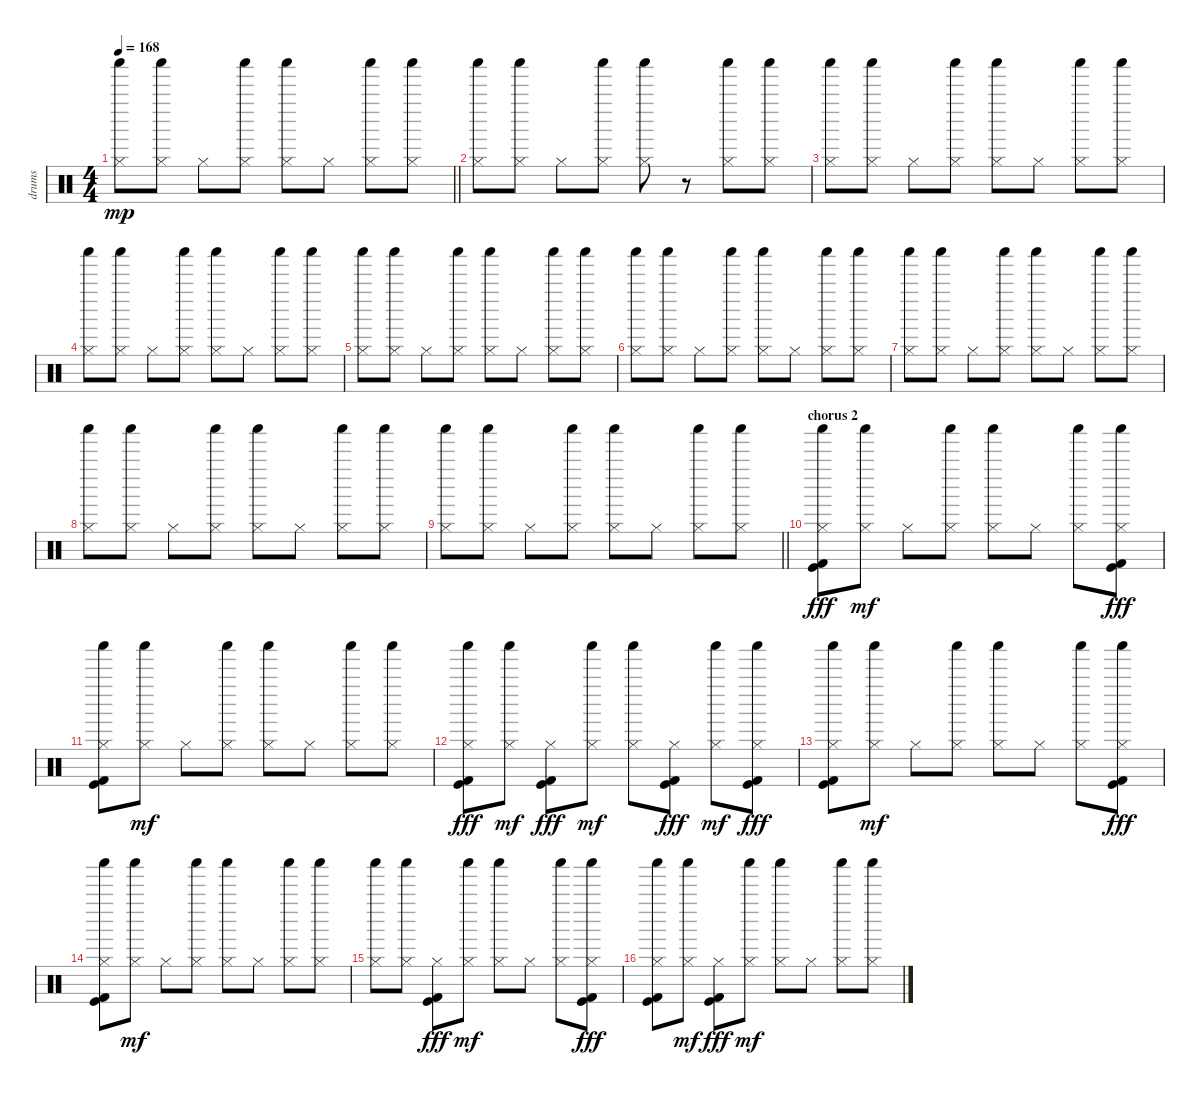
\track ("drums" "drums") {instrument percussion}
\staff {score}
\articulation defaults
\ts (4 4)
\tempo 168
\clef neutral
\barLineRight lightlight
\ks c
("Hi-Hat (closed)" "Shaker (hit)").8{dy mp} ("Hi-Hat (closed)" "Shaker (hit)").8 "Hi-Hat (closed)".8 ("Hi-Hat (closed)" "Shaker (hit)").8 ("Hi-Hat (closed)" "Shaker (hit)").8 "Hi-Hat (closed)".8 ("Hi-Hat (closed)" "Shaker (hit)").8 ("Hi-Hat (closed)" "Shaker (hit)").8 |
("Hi-Hat (closed)" "Shaker (hit)").8 ("Hi-Hat (closed)" "Shaker (hit)").8 "Hi-Hat (closed)".8 ("Hi-Hat (closed)" "Shaker (hit)").8 ("Hi-Hat (closed)" "Shaker (hit)").8 r.8 ("Hi-Hat (closed)" "Shaker (hit)").8 ("Hi-Hat (closed)" "Shaker (hit)").8 |
("Hi-Hat (closed)" "Shaker (hit)").8 ("Hi-Hat (closed)" "Shaker (hit)").8 "Hi-Hat (closed)".8 ("Hi-Hat (closed)" "Shaker (hit)").8 ("Hi-Hat (closed)" "Shaker (hit)").8 "Hi-Hat (closed)".8 ("Hi-Hat (closed)" "Shaker (hit)").8 ("Hi-Hat (closed)" "Shaker (hit)").8 |
("Hi-Hat (closed)" "Shaker (hit)").8 ("Hi-Hat (closed)" "Shaker (hit)").8 "Hi-Hat (closed)".8 ("Hi-Hat (closed)" "Shaker (hit)").8 ("Hi-Hat (closed)" "Shaker (hit)").8 "Hi-Hat (closed)".8 ("Hi-Hat (closed)" "Shaker (hit)").8 ("Hi-Hat (closed)" "Shaker (hit)").8 |
("Hi-Hat (closed)" "Shaker (hit)").8 ("Hi-Hat (closed)" "Shaker (hit)").8 "Hi-Hat (closed)".8 ("Hi-Hat (closed)" "Shaker (hit)").8 ("Hi-Hat (closed)" "Shaker (hit)").8 "Hi-Hat (closed)".8 ("Hi-Hat (closed)" "Shaker (hit)").8 ("Hi-Hat (closed)" "Shaker (hit)").8 |
("Hi-Hat (closed)" "Shaker (hit)").8 ("Hi-Hat (closed)" "Shaker (hit)").8 "Hi-Hat (closed)".8 ("Hi-Hat (closed)" "Shaker (hit)").8 ("Hi-Hat (closed)" "Shaker (hit)").8 "Hi-Hat (closed)".8 ("Hi-Hat (closed)" "Shaker (hit)").8 ("Hi-Hat (closed)" "Shaker (hit)").8 |
("Hi-Hat (closed)" "Shaker (hit)").8 ("Hi-Hat (closed)" "Shaker (hit)").8 "Hi-Hat (closed)".8 ("Hi-Hat (closed)" "Shaker (hit)").8 ("Hi-Hat (closed)" "Shaker (hit)").8 "Hi-Hat (closed)".8 ("Hi-Hat (closed)" "Shaker (hit)").8 ("Hi-Hat (closed)" "Shaker (hit)").8 |
("Hi-Hat (closed)" "Shaker (hit)").8 ("Hi-Hat (closed)" "Shaker (hit)").8 "Hi-Hat (closed)".8 ("Hi-Hat (closed)" "Shaker (hit)").8 ("Hi-Hat (closed)" "Shaker (hit)").8 "Hi-Hat (closed)".8 ("Hi-Hat (closed)" "Shaker (hit)").8 ("Hi-Hat (closed)" "Shaker (hit)").8 |
\barLineRight lightlight
("Hi-Hat (closed)" "Shaker (hit)").8 ("Hi-Hat (closed)" "Shaker (hit)").8 "Hi-Hat (closed)".8 ("Hi-Hat (closed)" "Shaker (hit)").8 ("Hi-Hat (closed)" "Shaker (hit)").8 "Hi-Hat (closed)".8 ("Hi-Hat (closed)" "Shaker (hit)").8 ("Hi-Hat (closed)" "Shaker (hit)").8 |
\section ("" "chorus 2")
("Hi-Hat (closed)" "Shaker (hit)" "Kick (hit) 2" "Kick (hit)").8{dy fff} ("Hi-Hat (closed)" "Shaker (hit)").8{dy mf} "Hi-Hat (closed)".8 ("Hi-Hat (closed)" "Shaker (hit)").8 ("Hi-Hat (closed)" "Shaker (hit)").8 "Hi-Hat (closed)".8 ("Hi-Hat (closed)" "Shaker (hit)").8 ("Hi-Hat (closed)" "Shaker (hit)" "Kick (hit) 2" "Kick (hit)").8{dy fff} |
("Hi-Hat (closed)" "Shaker (hit)" "Kick (hit) 2" "Kick (hit)").8 ("Hi-Hat (closed)" "Shaker (hit)").8{dy mf} "Hi-Hat (closed)".8 ("Hi-Hat (closed)" "Shaker (hit)").8 ("Hi-Hat (closed)" "Shaker (hit)").8 "Hi-Hat (closed)".8 ("Hi-Hat (closed)" "Shaker (hit)").8 ("Hi-Hat (closed)" "Shaker (hit)").8 |
("Hi-Hat (closed)" "Shaker (hit)" "Kick (hit) 2" "Kick (hit)").8{dy fff} ("Hi-Hat (closed)" "Shaker (hit)").8{dy mf} ("Hi-Hat (closed)" "Kick (hit) 2" "Kick (hit)").8{dy fff} ("Hi-Hat (closed)" "Shaker (hit)").8{dy mf} ("Hi-Hat (closed)" "Shaker (hit)").8 ("Hi-Hat (closed)" "Kick (hit) 2" "Kick (hit)").8{dy fff} ("Hi-Hat (closed)" "Shaker (hit)").8{dy mf} ("Hi-Hat (closed)" "Shaker (hit)" "Kick (hit) 2" "Kick (hit)").8{dy fff} |
("Hi-Hat (closed)" "Shaker (hit)" "Kick (hit) 2" "Kick (hit)").8 ("Hi-Hat (closed)" "Shaker (hit)").8{dy mf} "Hi-Hat (closed)".8 ("Hi-Hat (closed)" "Shaker (hit)").8 ("Hi-Hat (closed)" "Shaker (hit)").8 "Hi-Hat (closed)".8 ("Hi-Hat (closed)" "Shaker (hit)").8 ("Hi-Hat (closed)" "Shaker (hit)" "Kick (hit) 2" "Kick (hit)").8{dy fff} |
("Hi-Hat (closed)" "Shaker (hit)" "Kick (hit) 2" "Kick (hit)").8 ("Hi-Hat (closed)" "Shaker (hit)").8{dy mf} "Hi-Hat (closed)".8 ("Hi-Hat (closed)" "Shaker (hit)").8 ("Hi-Hat (closed)" "Shaker (hit)").8 "Hi-Hat (closed)".8 ("Hi-Hat (closed)" "Shaker (hit)").8 ("Hi-Hat (closed)" "Shaker (hit)").8 |
("Hi-Hat (closed)" "Shaker (hit)").8 ("Hi-Hat (closed)" "Shaker (hit)").8 ("Hi-Hat (closed)" "Kick (hit) 2" "Kick (hit)").8{dy fff} ("Hi-Hat (closed)" "Shaker (hit)").8{dy mf} ("Hi-Hat (closed)" "Shaker (hit)").8 "Hi-Hat (closed)".8 ("Hi-Hat (closed)" "Shaker (hit)").8 ("Hi-Hat (closed)" "Shaker (hit)" "Kick (hit) 2" "Kick (hit)").8{dy fff} |
("Hi-Hat (closed)" "Shaker (hit)" "Kick (hit) 2" "Kick (hit)").8 ("Hi-Hat (closed)" "Shaker (hit)").8{dy mf} ("Hi-Hat (closed)" "Kick (hit) 2" "Kick (hit)").8{dy fff} ("Hi-Hat (closed)" "Shaker (hit)").8{dy mf} ("Hi-Hat (closed)" "Shaker (hit)").8 "Hi-Hat (closed)".8 ("Hi-Hat (closed)" "Shaker (hit)").8 ("Hi-Hat (closed)" "Shaker (hit)").8
